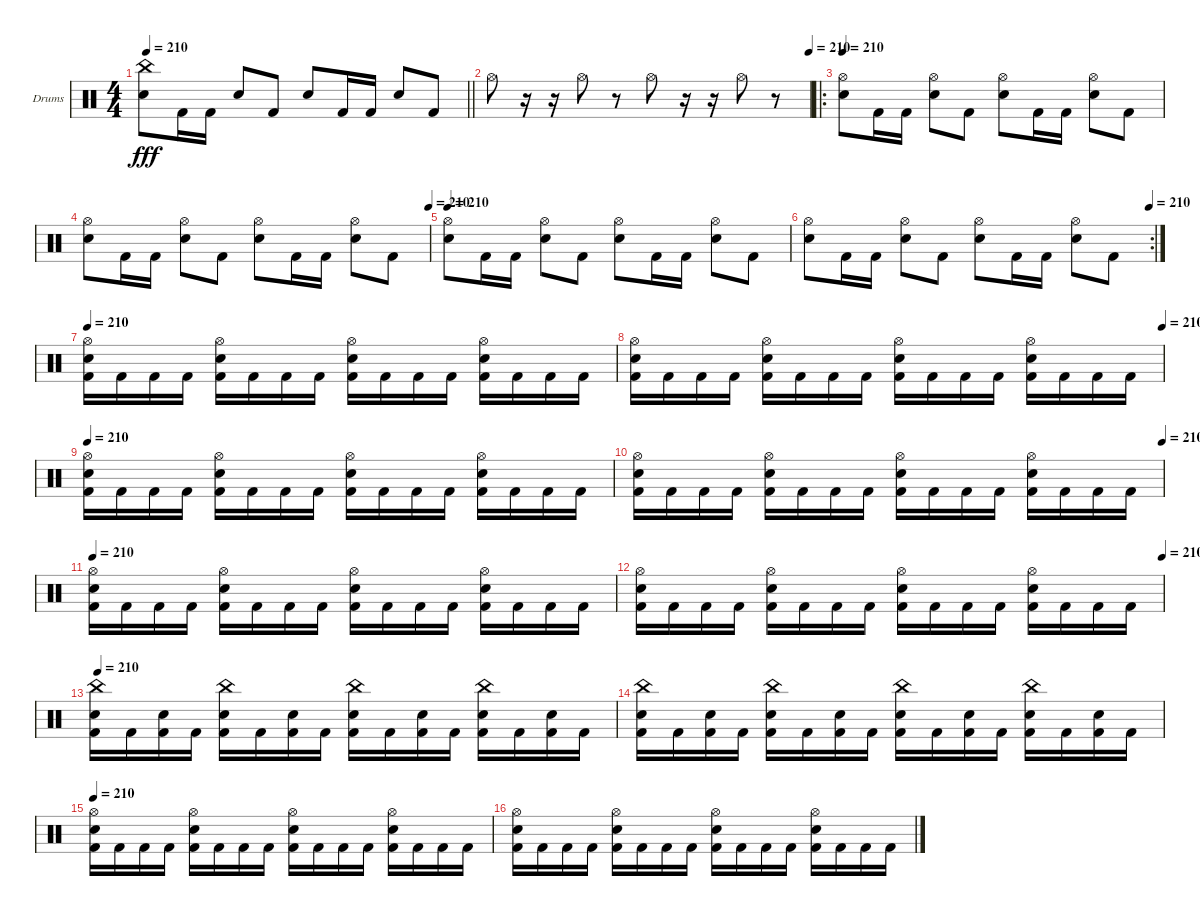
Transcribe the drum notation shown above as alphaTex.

\bracketExtendMode groupsimilarinstruments
\firstSystemTrackNameOrientation horizontal
\otherSystemsTrackNameOrientation horizontal
\track ("Gigante" "Drums") {instrument percussion}
\staff {score}
\articulation defaults
\ts (4 4)
\tempo 210
\clef neutral
\barLineRight lightlight
\ks c
("China (hit)" "Snare (hit) 2").8{dy fff} "Kick (hit) 2".16 "Kick (hit) 2".16 "Snare (hit) 2".8 "Kick (hit) 2".8 "Snare (hit) 2".8 "Kick (hit) 2".16 "Kick (hit) 2".16 "Snare (hit) 2".8 "Kick (hit) 2".8 |
\tempo (210 1)
"Hi-Hat (open)".8 r.16 r.16 "Hi-Hat (open)".8 r.8 "Hi-Hat (open)".8 r.16 r.16 "Hi-Hat (open)".8 r.8 |
\ro
\tempo 210
("Hi-Hat (open)" "Snare (hit) 2").8 "Kick (hit) 2".16 "Kick (hit) 2".16 ("Hi-Hat (open)" "Snare (hit) 2").8 "Kick (hit) 2".8 ("Hi-Hat (open)" "Snare (hit) 2").8 "Kick (hit) 2".16 "Kick (hit) 2".16 ("Hi-Hat (open)" "Snare (hit) 2").8 "Kick (hit) 2".8 |
\tempo (210 1)
("Hi-Hat (open)" "Snare (hit) 2").8 "Kick (hit) 2".16 "Kick (hit) 2".16 ("Hi-Hat (open)" "Snare (hit) 2").8 "Kick (hit) 2".8 ("Hi-Hat (open)" "Snare (hit) 2").8 "Kick (hit) 2".16 "Kick (hit) 2".16 ("Hi-Hat (open)" "Snare (hit) 2").8 "Kick (hit) 2".8 |
\tempo 210
("Hi-Hat (open)" "Snare (hit) 2").8 "Kick (hit) 2".16 "Kick (hit) 2".16 ("Hi-Hat (open)" "Snare (hit) 2").8 "Kick (hit) 2".8 ("Hi-Hat (open)" "Snare (hit) 2").8 "Kick (hit) 2".16 "Kick (hit) 2".16 ("Hi-Hat (open)" "Snare (hit) 2").8 "Kick (hit) 2".8 |
\rc 2
\tempo (210 1)
("Hi-Hat (open)" "Snare (hit) 2").8 "Kick (hit) 2".16 "Kick (hit) 2".16 ("Hi-Hat (open)" "Snare (hit) 2").8 "Kick (hit) 2".8 ("Hi-Hat (open)" "Snare (hit) 2").8 "Kick (hit) 2".16 "Kick (hit) 2".16 ("Hi-Hat (open)" "Snare (hit) 2").8 "Kick (hit) 2".8 |
\tempo 210
("Hi-Hat (open)" "Snare (hit) 2" "Kick (hit) 2").16 "Kick (hit) 2".16 "Kick (hit) 2".16 "Kick (hit) 2".16 ("Hi-Hat (open)" "Snare (hit) 2" "Kick (hit) 2").16 "Kick (hit) 2".16 "Kick (hit) 2".16 "Kick (hit) 2".16 ("Hi-Hat (open)" "Snare (hit) 2" "Kick (hit) 2").16 "Kick (hit) 2".16 "Kick (hit) 2".16 "Kick (hit) 2".16 ("Hi-Hat (open)" "Snare (hit) 2" "Kick (hit) 2").16 "Kick (hit) 2".16 "Kick (hit) 2".16 "Kick (hit) 2".16 |
\tempo (210 1)
("Hi-Hat (open)" "Snare (hit) 2" "Kick (hit) 2").16 "Kick (hit) 2".16 "Kick (hit) 2".16 "Kick (hit) 2".16 ("Hi-Hat (open)" "Snare (hit) 2" "Kick (hit) 2").16 "Kick (hit) 2".16 "Kick (hit) 2".16 "Kick (hit) 2".16 ("Hi-Hat (open)" "Snare (hit) 2" "Kick (hit) 2").16 "Kick (hit) 2".16 "Kick (hit) 2".16 "Kick (hit) 2".16 ("Hi-Hat (open)" "Snare (hit) 2" "Kick (hit) 2").16 "Kick (hit) 2".16 "Kick (hit) 2".16 "Kick (hit) 2".16 |
\tempo 210
("Hi-Hat (open)" "Snare (hit) 2" "Kick (hit) 2").16 "Kick (hit) 2".16 "Kick (hit) 2".16 "Kick (hit) 2".16 ("Hi-Hat (open)" "Snare (hit) 2" "Kick (hit) 2").16 "Kick (hit) 2".16 "Kick (hit) 2".16 "Kick (hit) 2".16 ("Hi-Hat (open)" "Snare (hit) 2" "Kick (hit) 2").16 "Kick (hit) 2".16 "Kick (hit) 2".16 "Kick (hit) 2".16 ("Hi-Hat (open)" "Snare (hit) 2" "Kick (hit) 2").16 "Kick (hit) 2".16 "Kick (hit) 2".16 "Kick (hit) 2".16 |
\tempo (210 1)
("Hi-Hat (open)" "Snare (hit) 2" "Kick (hit) 2").16 "Kick (hit) 2".16 "Kick (hit) 2".16 "Kick (hit) 2".16 ("Hi-Hat (open)" "Snare (hit) 2" "Kick (hit) 2").16 "Kick (hit) 2".16 "Kick (hit) 2".16 "Kick (hit) 2".16 ("Hi-Hat (open)" "Snare (hit) 2" "Kick (hit) 2").16 "Kick (hit) 2".16 "Kick (hit) 2".16 "Kick (hit) 2".16 ("Hi-Hat (open)" "Snare (hit) 2" "Kick (hit) 2").16 "Kick (hit) 2".16 "Kick (hit) 2".16 "Kick (hit) 2".16 |
\tempo 210
("Hi-Hat (open)" "Snare (hit) 2" "Kick (hit) 2").16 "Kick (hit) 2".16 "Kick (hit) 2".16 "Kick (hit) 2".16 ("Hi-Hat (open)" "Snare (hit) 2" "Kick (hit) 2").16 "Kick (hit) 2".16 "Kick (hit) 2".16 "Kick (hit) 2".16 ("Hi-Hat (open)" "Snare (hit) 2" "Kick (hit) 2").16 "Kick (hit) 2".16 "Kick (hit) 2".16 "Kick (hit) 2".16 ("Hi-Hat (open)" "Snare (hit) 2" "Kick (hit) 2").16 "Kick (hit) 2".16 "Kick (hit) 2".16 "Kick (hit) 2".16 |
\tempo (210 1)
("Hi-Hat (open)" "Snare (hit) 2" "Kick (hit) 2").16 "Kick (hit) 2".16 "Kick (hit) 2".16 "Kick (hit) 2".16 ("Hi-Hat (open)" "Snare (hit) 2" "Kick (hit) 2").16 "Kick (hit) 2".16 "Kick (hit) 2".16 "Kick (hit) 2".16 ("Hi-Hat (open)" "Snare (hit) 2" "Kick (hit) 2").16 "Kick (hit) 2".16 "Kick (hit) 2".16 "Kick (hit) 2".16 ("Hi-Hat (open)" "Snare (hit) 2" "Kick (hit) 2").16 "Kick (hit) 2".16 "Kick (hit) 2".16 "Kick (hit) 2".16 |
\tempo 210
("China (hit)" "Snare (hit) 2" "Kick (hit) 2").16 "Kick (hit) 2".16 ("Snare (hit) 2" "Kick (hit) 2").16 "Kick (hit) 2".16 ("China (hit)" "Snare (hit) 2" "Kick (hit) 2").16 "Kick (hit) 2".16 ("Snare (hit) 2" "Kick (hit) 2").16 "Kick (hit) 2".16 ("China (hit)" "Snare (hit) 2" "Kick (hit) 2").16 "Kick (hit) 2".16 ("Snare (hit) 2" "Kick (hit) 2").16 "Kick (hit) 2".16 ("China (hit)" "Snare (hit) 2" "Kick (hit) 2").16 "Kick (hit) 2".16 ("Snare (hit) 2" "Kick (hit) 2").16 "Kick (hit) 2".16 |
("China (hit)" "Snare (hit) 2" "Kick (hit) 2").16 "Kick (hit) 2".16 ("Snare (hit) 2" "Kick (hit) 2").16 "Kick (hit) 2".16 ("China (hit)" "Snare (hit) 2" "Kick (hit) 2").16 "Kick (hit) 2".16 ("Snare (hit) 2" "Kick (hit) 2").16 "Kick (hit) 2".16 ("China (hit)" "Snare (hit) 2" "Kick (hit) 2").16 "Kick (hit) 2".16 ("Snare (hit) 2" "Kick (hit) 2").16 "Kick (hit) 2".16 ("China (hit)" "Snare (hit) 2" "Kick (hit) 2").16 "Kick (hit) 2".16 ("Snare (hit) 2" "Kick (hit) 2").16 "Kick (hit) 2".16 |
\tempo 210
("Hi-Hat (open)" "Snare (hit) 2" "Kick (hit) 2").16 "Kick (hit) 2".16 "Kick (hit) 2".16 "Kick (hit) 2".16 ("Hi-Hat (open)" "Snare (hit) 2" "Kick (hit) 2").16 "Kick (hit) 2".16 "Kick (hit) 2".16 "Kick (hit) 2".16 ("Hi-Hat (open)" "Snare (hit) 2" "Kick (hit) 2").16 "Kick (hit) 2".16 "Kick (hit) 2".16 "Kick (hit) 2".16 ("Hi-Hat (open)" "Snare (hit) 2" "Kick (hit) 2").16 "Kick (hit) 2".16 "Kick (hit) 2".16 "Kick (hit) 2".16 |
("Hi-Hat (open)" "Snare (hit) 2" "Kick (hit) 2").16 "Kick (hit) 2".16 "Kick (hit) 2".16 "Kick (hit) 2".16 ("Hi-Hat (open)" "Snare (hit) 2" "Kick (hit) 2").16 "Kick (hit) 2".16 "Kick (hit) 2".16 "Kick (hit) 2".16 ("Hi-Hat (open)" "Snare (hit) 2" "Kick (hit) 2").16 "Kick (hit) 2".16 "Kick (hit) 2".16 "Kick (hit) 2".16 ("Hi-Hat (open)" "Snare (hit) 2" "Kick (hit) 2").16 "Kick (hit) 2".16 "Kick (hit) 2".16 "Kick (hit) 2".16
